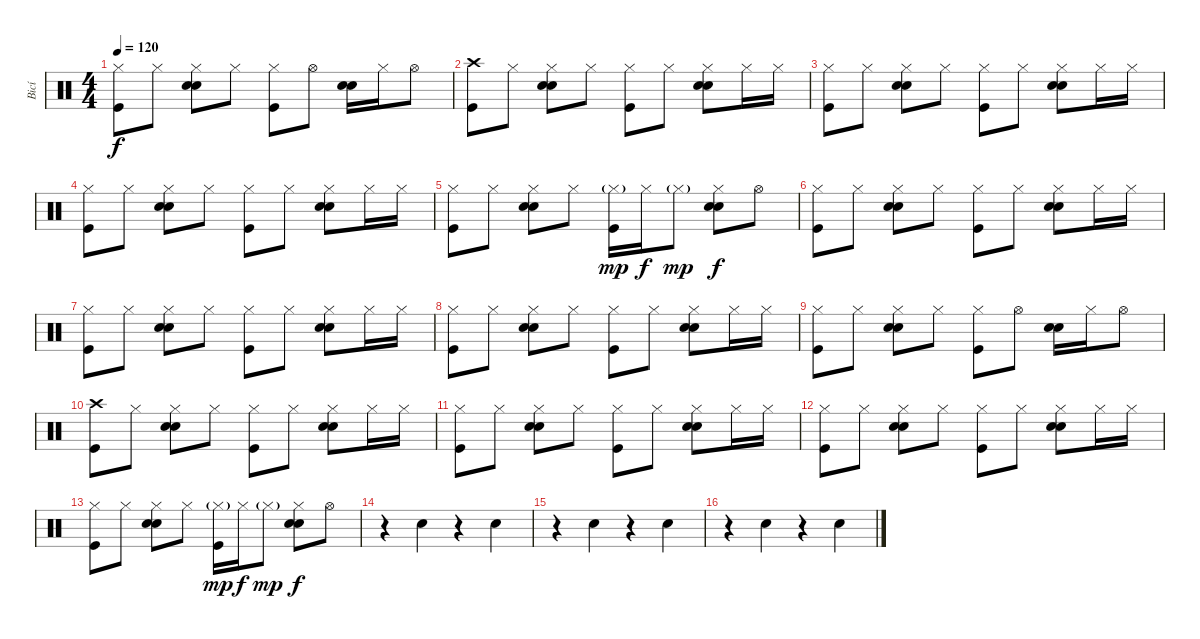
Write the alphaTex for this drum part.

\track ("Bicí" "Bicí") {instrument percussion}
\staff {score}
\articulation defaults
\ts (4 4)
\tempo 120
\clef neutral
\ks c
("Hi-Hat (closed)" "Kick (hit)").8{dy f} "Hi-Hat (closed)".8 ("Hi-Hat (closed)" "Hand Clap (hit)" "Electric Snare (hit)").8 "Hi-Hat (closed)".8 ("Hi-Hat (closed)" "Kick (hit)").8 "Hi-Hat (open)".8 ("Hand Clap (hit)" "Electric Snare (hit)").16 "Hi-Hat (closed)".16 "Hi-Hat (open)".8 |
("Crash high (hit)" "Kick (hit)").8 "Hi-Hat (closed)".8 ("Hi-Hat (closed)" "Hand Clap (hit)" "Electric Snare (hit)").8 "Hi-Hat (closed)".8 ("Hi-Hat (closed)" "Kick (hit)").8 "Hi-Hat (closed)".8 ("Hi-Hat (closed)" "Hand Clap (hit)" "Electric Snare (hit)").8 "Hi-Hat (closed)".16 "Hi-Hat (closed)".16 |
("Hi-Hat (closed)" "Kick (hit)").8 "Hi-Hat (closed)".8 ("Hi-Hat (closed)" "Hand Clap (hit)" "Electric Snare (hit)").8 "Hi-Hat (closed)".8 ("Hi-Hat (closed)" "Kick (hit)").8 "Hi-Hat (closed)".8 ("Hi-Hat (closed)" "Hand Clap (hit)" "Electric Snare (hit)").8 "Hi-Hat (closed)".16 "Hi-Hat (closed)".16 |
("Hi-Hat (closed)" "Kick (hit)").8 "Hi-Hat (closed)".8 ("Hi-Hat (closed)" "Hand Clap (hit)" "Electric Snare (hit)").8 "Hi-Hat (closed)".8 ("Hi-Hat (closed)" "Kick (hit)").8 "Hi-Hat (closed)".8 ("Hi-Hat (closed)" "Hand Clap (hit)" "Electric Snare (hit)").8 "Hi-Hat (closed)".16 "Hi-Hat (closed)".16 |
("Hi-Hat (closed)" "Kick (hit)").8 "Hi-Hat (closed)".8 ("Hi-Hat (closed)" "Hand Clap (hit)" "Electric Snare (hit)").8 "Hi-Hat (closed)".8 ("Hi-Hat (closed)"{g} "Kick (hit)").16{dy mp} "Hi-Hat (closed)".16{dy f} "Hi-Hat (closed)"{g}.8{dy mp} ("Hi-Hat (closed)" "Hand Clap (hit)" "Electric Snare (hit)").8{dy f} "Hi-Hat (open)".8 |
("Hi-Hat (closed)" "Kick (hit)").8 "Hi-Hat (closed)".8 ("Hi-Hat (closed)" "Hand Clap (hit)" "Electric Snare (hit)").8 "Hi-Hat (closed)".8 ("Hi-Hat (closed)" "Kick (hit)").8 "Hi-Hat (closed)".8 ("Hi-Hat (closed)" "Hand Clap (hit)" "Electric Snare (hit)").8 "Hi-Hat (closed)".16 "Hi-Hat (closed)".16 |
("Hi-Hat (closed)" "Kick (hit)").8 "Hi-Hat (closed)".8 ("Hi-Hat (closed)" "Hand Clap (hit)" "Electric Snare (hit)").8 "Hi-Hat (closed)".8 ("Hi-Hat (closed)" "Kick (hit)").8 "Hi-Hat (closed)".8 ("Hi-Hat (closed)" "Hand Clap (hit)" "Electric Snare (hit)").8 "Hi-Hat (closed)".16 "Hi-Hat (closed)".16 |
("Hi-Hat (closed)" "Kick (hit)").8 "Hi-Hat (closed)".8 ("Hi-Hat (closed)" "Hand Clap (hit)" "Electric Snare (hit)").8 "Hi-Hat (closed)".8 ("Hi-Hat (closed)" "Kick (hit)").8 "Hi-Hat (closed)".8 ("Hi-Hat (closed)" "Hand Clap (hit)" "Electric Snare (hit)").8 "Hi-Hat (closed)".16 "Hi-Hat (closed)".16 |
("Hi-Hat (closed)" "Kick (hit)").8 "Hi-Hat (closed)".8 ("Hi-Hat (closed)" "Hand Clap (hit)" "Electric Snare (hit)").8 "Hi-Hat (closed)".8 ("Hi-Hat (closed)" "Kick (hit)").8 "Hi-Hat (open)".8 ("Hand Clap (hit)" "Electric Snare (hit)").16 "Hi-Hat (closed)".16 "Hi-Hat (open)".8 |
("Crash high (hit)" "Kick (hit)").8 "Hi-Hat (closed)".8 ("Hi-Hat (closed)" "Hand Clap (hit)" "Electric Snare (hit)").8 "Hi-Hat (closed)".8 ("Hi-Hat (closed)" "Kick (hit)").8 "Hi-Hat (closed)".8 ("Hi-Hat (closed)" "Hand Clap (hit)" "Electric Snare (hit)").8 "Hi-Hat (closed)".16 "Hi-Hat (closed)".16 |
("Hi-Hat (closed)" "Kick (hit)").8 "Hi-Hat (closed)".8 ("Hi-Hat (closed)" "Hand Clap (hit)" "Electric Snare (hit)").8 "Hi-Hat (closed)".8 ("Hi-Hat (closed)" "Kick (hit)").8 "Hi-Hat (closed)".8 ("Hi-Hat (closed)" "Hand Clap (hit)" "Electric Snare (hit)").8 "Hi-Hat (closed)".16 "Hi-Hat (closed)".16 |
("Hi-Hat (closed)" "Kick (hit)").8 "Hi-Hat (closed)".8 ("Hi-Hat (closed)" "Hand Clap (hit)" "Electric Snare (hit)").8 "Hi-Hat (closed)".8 ("Hi-Hat (closed)" "Kick (hit)").8 "Hi-Hat (closed)".8 ("Hi-Hat (closed)" "Hand Clap (hit)" "Electric Snare (hit)").8 "Hi-Hat (closed)".16 "Hi-Hat (closed)".16 |
("Hi-Hat (closed)" "Kick (hit)").8 "Hi-Hat (closed)".8 ("Hi-Hat (closed)" "Hand Clap (hit)" "Electric Snare (hit)").8 "Hi-Hat (closed)".8 ("Hi-Hat (closed)"{g} "Kick (hit)").16{dy mp} "Hi-Hat (closed)".16{dy f} "Hi-Hat (closed)"{g}.8{dy mp} ("Hi-Hat (closed)" "Hand Clap (hit)" "Electric Snare (hit)").8{dy f} "Hi-Hat (open)".8 |
r.4 "Hand Clap (hit)".4 r.4 "Hand Clap (hit)".4 |
r.4 "Hand Clap (hit)".4 r.4 "Hand Clap (hit)".4 |
r.4 "Hand Clap (hit)".4 r.4 "Hand Clap (hit)".4
